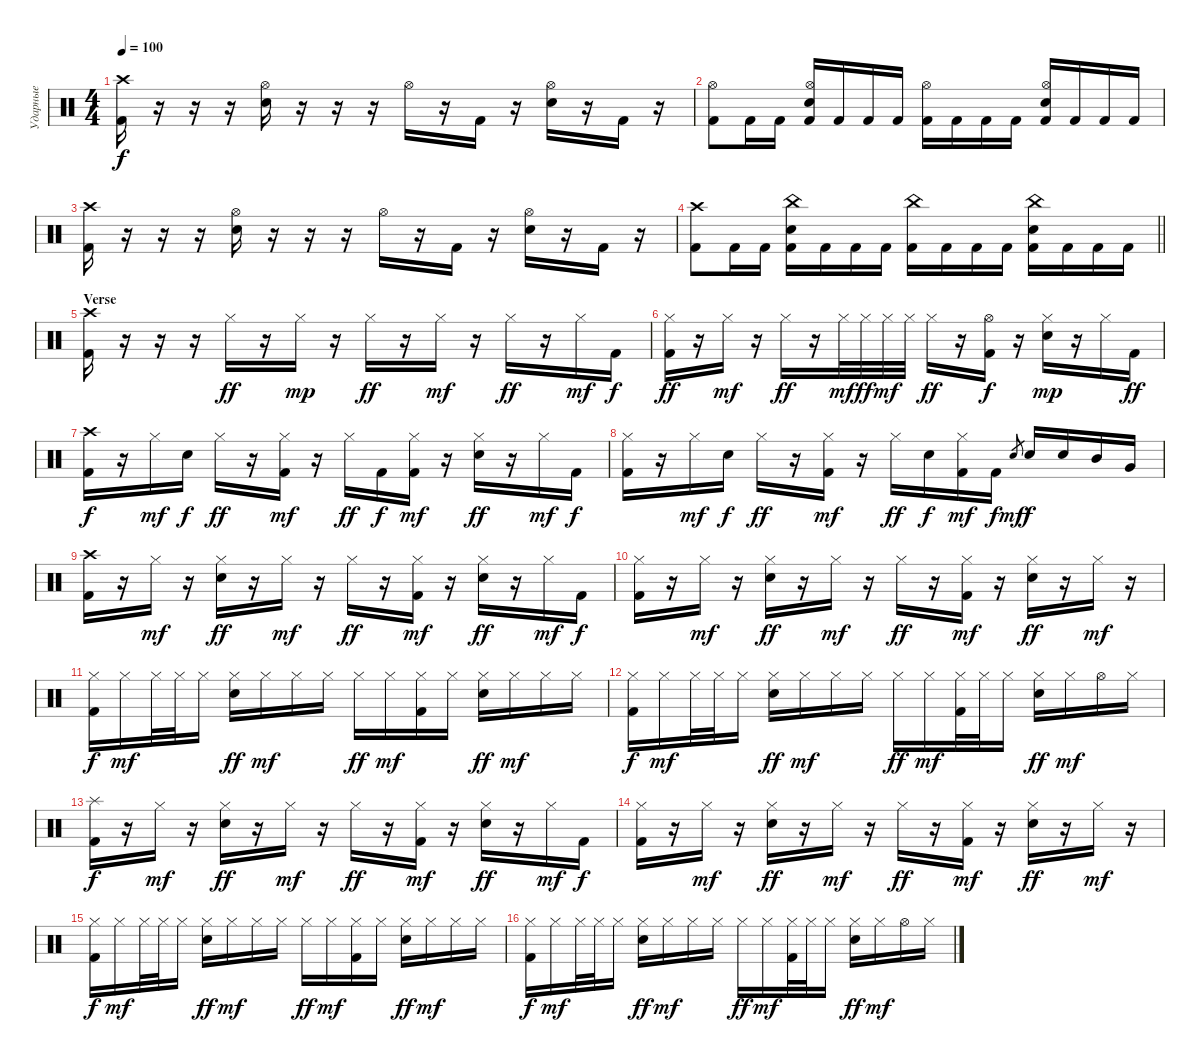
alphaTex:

\track ("Ударные" "Ударные") {instrument percussion}
\staff {score}
\articulation defaults
\ts (4 4)
\tempo 100
\clef neutral
\ks c
("Crash high (hit)" "Kick (hit) 2").16{dy f} r.16 r.16 r.16 ("Hi-Hat (open)" "Electric Snare (hit)").16 r.16 r.16 r.16 "Hi-Hat (open)".16 r.16 "Kick (hit) 2".16 r.16 ("Hi-Hat (open)" "Electric Snare (hit)").16 r.16 "Kick (hit) 2".16 r.16 |
("Hi-Hat (open)" "Kick (hit) 2").8 "Kick (hit) 2".16 "Kick (hit) 2".16 ("Hi-Hat (open)" "Electric Snare (hit)" "Kick (hit) 2").16 "Kick (hit) 2".16 "Kick (hit) 2".16 "Kick (hit) 2".16 ("Hi-Hat (open)" "Kick (hit) 2").16 "Kick (hit) 2".16 "Kick (hit) 2".16 "Kick (hit) 2".16 ("Hi-Hat (open)" "Electric Snare (hit)" "Kick (hit) 2").16 "Kick (hit) 2".16 "Kick (hit) 2".16 "Kick (hit) 2".16 |
("Crash high (hit)" "Kick (hit) 2").16 r.16 r.16 r.16 ("Hi-Hat (open)" "Electric Snare (hit)").16 r.16 r.16 r.16 "Hi-Hat (open)".16 r.16 "Kick (hit) 2".16 r.16 ("Hi-Hat (open)" "Electric Snare (hit)").16 r.16 "Kick (hit) 2".16 r.16 |
\barLineRight lightlight
("Crash high (hit)" "Kick (hit) 2").8 "Kick (hit) 2".16 "Kick (hit) 2".16 ("China (hit)" "Electric Snare (hit)" "Kick (hit) 2").16 "Kick (hit) 2".16 "Kick (hit) 2".16 "Kick (hit) 2".16 ("China (hit)" "Kick (hit) 2").16 "Kick (hit) 2".16 "Kick (hit) 2".16 "Kick (hit) 2".16 ("China (hit)" "Electric Snare (hit)" "Kick (hit) 2").16 "Kick (hit) 2".16 "Kick (hit) 2".16 "Kick (hit) 2".16 |
\section ("" "Verse")
("Crash high (hit)" "Kick (hit) 2").16 r.16 r.16 r.16 "Hi-Hat (closed)".16{dy ff} r.16 "Hi-Hat (closed)".16{dy mp} r.16 "Hi-Hat (closed)".16{dy ff} r.16 "Hi-Hat (closed)".16{dy mf} r.16 "Hi-Hat (closed)".16{dy ff} r.16 "Hi-Hat (closed)".16{dy mf} "Kick (hit) 2".16{dy f} |
("Hi-Hat (closed)" "Kick (hit) 2").16{dy ff} r.16 "Hi-Hat (closed)".16{dy mf} r.16 "Hi-Hat (closed)".16{dy ff} r.16 "Hi-Hat (closed)".32{dy mf} "Hi-Hat (closed)".32{dy ff} "Hi-Hat (closed)".32{dy mf} "Hi-Hat (closed)".32 "Hi-Hat (closed)".16{dy ff} r.16 ("Hi-Hat (open)" "Kick (hit) 2").16{dy f} r.16 ("Hi-Hat (closed)" "Electric Snare (hit)").16{dy mp} r.16 "Hi-Hat (closed)".16 "Kick (hit) 2".16{dy ff} |
("Crash high (hit)" "Kick (hit) 2").16{dy f} r.16 "Hi-Hat (closed)".16{dy mf} "Electric Snare (hit)".16{dy f} "Hi-Hat (closed)".16{dy ff} r.16 ("Hi-Hat (closed)" "Kick (hit) 2").16{dy mf} r.16 "Hi-Hat (closed)".16{dy ff} "Kick (hit) 2".16{dy f} ("Hi-Hat (closed)" "Kick (hit) 2").16{dy mf} r.16 ("Hi-Hat (closed)" "Electric Snare (hit)").16{dy ff} r.16 "Hi-Hat (closed)".16{dy mf} "Kick (hit) 2".16{dy f} |
("Hi-Hat (closed)" "Kick (hit) 2").16 r.16 "Hi-Hat (closed)".16{dy mf} "Electric Snare (hit)".16{dy f} "Hi-Hat (closed)".16{dy ff} r.16 ("Hi-Hat (closed)" "Kick (hit) 2").16{dy mf} r.16 "Hi-Hat (closed)".16{dy ff} "Electric Snare (hit)".16{dy f} ("Hi-Hat (closed)" "Kick (hit) 2").16{dy mf} "Kick (hit) 2".16{dy f} "Electric Snare (hit)".8{gr dy mf} "Electric Snare (hit)".16{dy f} "Electric Snare (hit)".16 "Mid Tom (hit)".16 "Very Low Tom (hit)".16 |
("Crash high (hit)" "Kick (hit) 2").16 r.16 "Hi-Hat (closed)".16{dy mf} r.16 ("Hi-Hat (closed)" "Electric Snare (hit)").16{dy ff} r.16 "Hi-Hat (closed)".16{dy mf} r.16 "Hi-Hat (closed)".16{dy ff} r.16 ("Hi-Hat (closed)" "Kick (hit) 2").16{dy mf} r.16 ("Hi-Hat (closed)" "Electric Snare (hit)").16{dy ff} r.16 "Hi-Hat (closed)".16{dy mf} "Kick (hit) 2".16{dy f} |
("Hi-Hat (closed)" "Kick (hit) 2").16 r.16 "Hi-Hat (closed)".16{dy mf} r.16 ("Hi-Hat (closed)" "Electric Snare (hit)").16{dy ff} r.16 "Hi-Hat (closed)".16{dy mf} r.16 "Hi-Hat (closed)".16{dy ff} r.16 ("Hi-Hat (closed)" "Kick (hit) 2").16{dy mf} r.16 ("Hi-Hat (closed)" "Electric Snare (hit)").16{dy ff} r.16 "Hi-Hat (closed)".16{dy mf} r.16 |
("Hi-Hat (closed)" "Kick (hit) 2").16{dy f} "Hi-Hat (closed)".16{dy mf} "Hi-Hat (closed)".32 "Hi-Hat (closed)".32 "Hi-Hat (closed)".16 ("Hi-Hat (closed)" "Electric Snare (hit)").16{dy ff} "Hi-Hat (closed)".16{dy mf} "Hi-Hat (closed)".16 "Hi-Hat (closed)".16 "Hi-Hat (closed)".16{dy ff} "Hi-Hat (closed)".16{dy mf} ("Hi-Hat (closed)" "Kick (hit) 2").16 "Hi-Hat (closed)".16 ("Hi-Hat (closed)" "Electric Snare (hit)").16{dy ff} "Hi-Hat (closed)".16{dy mf} "Hi-Hat (closed)".16 "Hi-Hat (closed)".16 |
("Hi-Hat (closed)" "Kick (hit) 2").16{dy f} "Hi-Hat (closed)".16{dy mf} "Hi-Hat (closed)".32 "Hi-Hat (closed)".32 "Hi-Hat (closed)".16 ("Hi-Hat (closed)" "Electric Snare (hit)").16{dy ff} "Hi-Hat (closed)".16{dy mf} "Hi-Hat (closed)".16 "Hi-Hat (closed)".16 "Hi-Hat (closed)".16{dy ff} "Hi-Hat (closed)".16{dy mf} ("Hi-Hat (closed)" "Kick (hit) 2").32 "Hi-Hat (closed)".32 "Hi-Hat (closed)".16 ("Hi-Hat (closed)" "Electric Snare (hit)").16{dy ff} "Hi-Hat (closed)".16{dy mf} "Hi-Hat (open)".16 "Hi-Hat (closed)".16 |
("Splash (hit)" "Kick (hit) 2").16{dy f} r.16 "Hi-Hat (closed)".16{dy mf} r.16 ("Hi-Hat (closed)" "Electric Snare (hit)").16{dy ff} r.16 "Hi-Hat (closed)".16{dy mf} r.16 "Hi-Hat (closed)".16{dy ff} r.16 ("Hi-Hat (closed)" "Kick (hit) 2").16{dy mf} r.16 ("Hi-Hat (closed)" "Electric Snare (hit)").16{dy ff} r.16 "Hi-Hat (closed)".16{dy mf} "Kick (hit) 2".16{dy f} |
("Hi-Hat (closed)" "Kick (hit) 2").16 r.16 "Hi-Hat (closed)".16{dy mf} r.16 ("Hi-Hat (closed)" "Electric Snare (hit)").16{dy ff} r.16 "Hi-Hat (closed)".16{dy mf} r.16 "Hi-Hat (closed)".16{dy ff} r.16 ("Hi-Hat (closed)" "Kick (hit) 2").16{dy mf} r.16 ("Hi-Hat (closed)" "Electric Snare (hit)").16{dy ff} r.16 "Hi-Hat (closed)".16{dy mf} r.16 |
("Hi-Hat (closed)" "Kick (hit) 2").16{dy f} "Hi-Hat (closed)".16{dy mf} "Hi-Hat (closed)".32 "Hi-Hat (closed)".32 "Hi-Hat (closed)".16 ("Hi-Hat (closed)" "Electric Snare (hit)").16{dy ff} "Hi-Hat (closed)".16{dy mf} "Hi-Hat (closed)".16 "Hi-Hat (closed)".16 "Hi-Hat (closed)".16{dy ff} "Hi-Hat (closed)".16{dy mf} ("Hi-Hat (closed)" "Kick (hit) 2").16 "Hi-Hat (closed)".16 ("Hi-Hat (closed)" "Electric Snare (hit)").16{dy ff} "Hi-Hat (closed)".16{dy mf} "Hi-Hat (closed)".16 "Hi-Hat (closed)".16 |
("Hi-Hat (closed)" "Kick (hit) 2").16{dy f} "Hi-Hat (closed)".16{dy mf} "Hi-Hat (closed)".32 "Hi-Hat (closed)".32 "Hi-Hat (closed)".16 ("Hi-Hat (closed)" "Electric Snare (hit)").16{dy ff} "Hi-Hat (closed)".16{dy mf} "Hi-Hat (closed)".16 "Hi-Hat (closed)".16 "Hi-Hat (closed)".16{dy ff} "Hi-Hat (closed)".16{dy mf} ("Hi-Hat (closed)" "Kick (hit) 2").32 "Hi-Hat (closed)".32 "Hi-Hat (closed)".16 ("Hi-Hat (closed)" "Electric Snare (hit)").16{dy ff} "Hi-Hat (closed)".16{dy mf} "Hi-Hat (open)".16 "Hi-Hat (closed)".16
